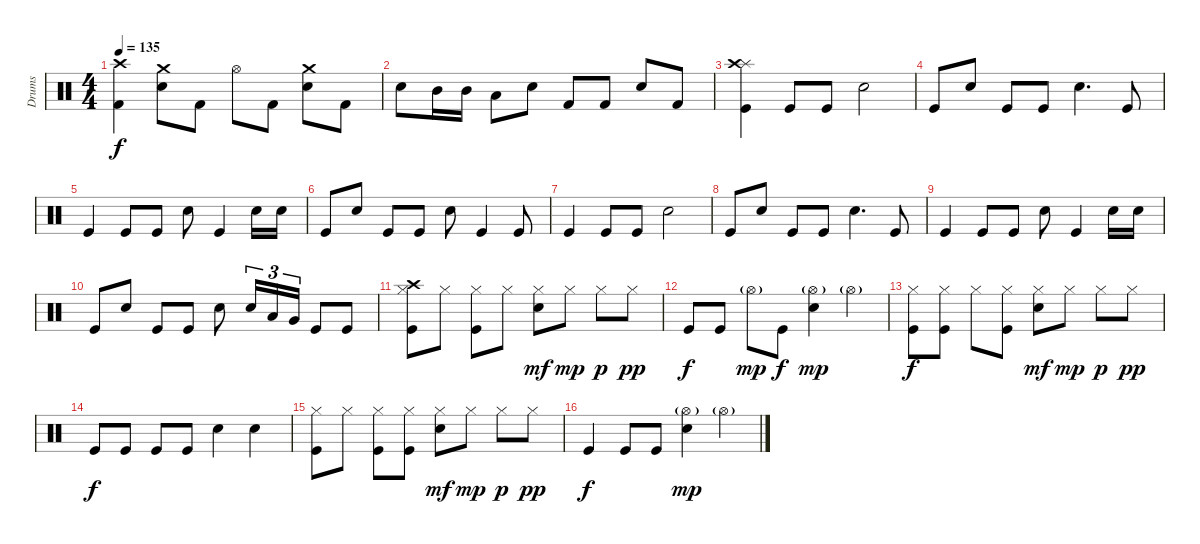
\track ("Drums" "Drums") {instrument percussion}
\staff {score}
\articulation defaults
\ts (4 4)
\tempo 135
\clef neutral
\ks c
("Crash high (hit)" "Kick (hit) 2").4{dy f} ("Crash medium (hit)" "Electric Snare (hit)").8 "Kick (hit) 2".8 "Hi-Hat (open)".8 "Kick (hit) 2".8 ("Crash medium (hit)" "Electric Snare (hit)").8 "Kick (hit) 2".8 |
"Electric Snare (hit)".8 "Mid Tom (hit)".16 "Mid Tom (hit)".16 "Low Tom (hit)".8 "Electric Snare (hit)".8 "Kick (hit) 2".8 "Kick (hit) 2".8 "Electric Snare (hit)".8 "Kick (hit) 2".8 |
("Splash (hit)" "Crash high (hit)" "Kick (hit)").4 "Kick (hit)".8 "Kick (hit)".8 "Snare (hit) 2".2 |
"Kick (hit)".8 "Snare (hit) 2".8 "Kick (hit)".8 "Kick (hit)".8 "Snare (hit) 2".4{d} "Kick (hit)".8 |
"Kick (hit)".4 "Kick (hit)".8 "Kick (hit)".8 "Snare (hit) 2".8 "Kick (hit)".4 "Snare (hit) 2".16 "Snare (hit) 2".16 |
"Kick (hit)".8 "Snare (hit) 2".8 "Kick (hit)".8 "Kick (hit)".8 "Snare (hit) 2".8 "Kick (hit)".4 "Kick (hit)".8 |
"Kick (hit)".4 "Kick (hit)".8 "Kick (hit)".8 "Snare (hit) 2".2 |
"Kick (hit)".8 "Snare (hit) 2".8 "Kick (hit)".8 "Kick (hit)".8 "Snare (hit) 2".4{d} "Kick (hit)".8 |
"Kick (hit)".4 "Kick (hit)".8 "Kick (hit)".8 "Snare (hit) 2".8 "Kick (hit)".4 "Snare (hit) 2".16 "Snare (hit) 2".16 |
"Kick (hit)".8 "Snare (hit) 2".8 "Kick (hit)".8 "Kick (hit)".8 "Snare (hit) 2".8 "Snare (hit) 2".16{tu (3 2)} "Low Tom (hit)".16{tu (3 2)} "Very Low Tom (hit)".16{tu (3 2)} "Kick (hit)".8 "Kick (hit)".8 |
("Hi-Hat (closed)" "Crash high (hit)" "Kick (hit)").8 "Hi-Hat (closed)".8 ("Hi-Hat (closed)" "Kick (hit)").8 "Hi-Hat (closed)".8 ("Hi-Hat (closed)" "Snare (hit) 2").8{dy mf} "Hi-Hat (closed)".8{dy mp} "Hi-Hat (closed)".8{dy p} "Hi-Hat (closed)".8{dy pp} |
"Kick (hit)".8{dy f} "Kick (hit)".8 "Hi-Hat (open)"{g}.8{dy mp} "Kick (hit)".8{dy f} ("Hi-Hat (open)"{g} "Snare (hit) 2").4{dy mp} "Hi-Hat (open)"{g}.4 |
("Hi-Hat (closed)" "Kick (hit)").8{dy f} ("Hi-Hat (closed)" "Kick (hit)").8 "Hi-Hat (closed)".8 ("Hi-Hat (closed)" "Kick (hit)").8 ("Hi-Hat (closed)" "Snare (hit) 2").8{dy mf} "Hi-Hat (closed)".8{dy mp} "Hi-Hat (closed)".8{dy p} "Hi-Hat (closed)".8{dy pp} |
"Kick (hit)".8{dy f} "Kick (hit)".8 "Kick (hit)".8 "Kick (hit)".8 "Snare (hit) 2".4 "Snare (hit) 2".4 |
("Hi-Hat (closed)" "Kick (hit)").8 "Hi-Hat (closed)".8 ("Hi-Hat (closed)" "Kick (hit)").8 ("Hi-Hat (closed)" "Kick (hit)").8 ("Hi-Hat (closed)" "Snare (hit) 2").8{dy mf} "Hi-Hat (closed)".8{dy mp} "Hi-Hat (closed)".8{dy p} "Hi-Hat (closed)".8{dy pp} |
"Kick (hit)".4{dy f} "Kick (hit)".8 "Kick (hit)".8 ("Hi-Hat (open)"{g} "Snare (hit) 2").4{dy mp} "Hi-Hat (open)"{g}.4
